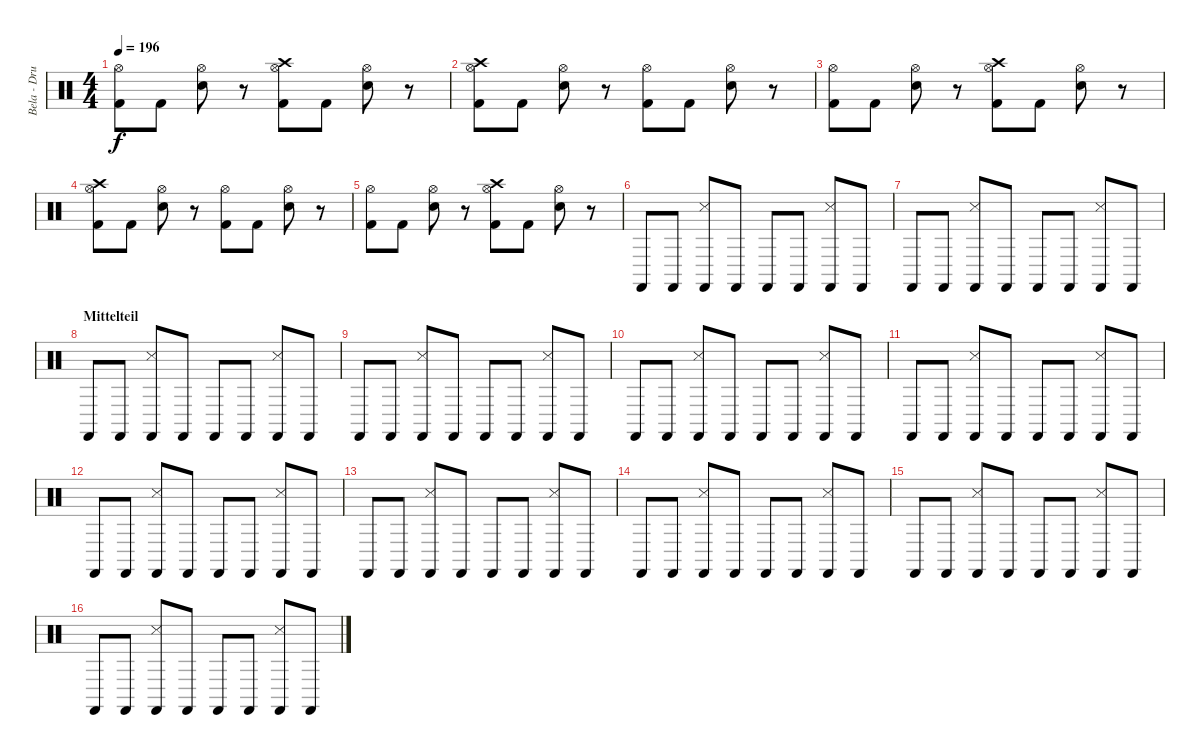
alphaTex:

\track ("Bela - Drums" "Bela - Dru") {instrument percussion}
\staff {score}
\articulation defaults
\ts (4 4)
\tempo 196
\clef neutral
\ks c
("Kick (hit) 2" "Hi-Hat (open)").8{dy f} "Kick (hit) 2".8 ("Electric Snare (hit)" "Hi-Hat (open)").8 r.8 ("Crash high (hit)" "Hi-Hat (open)" "Kick (hit) 2").8 "Kick (hit) 2".8 ("Electric Snare (hit)" "Hi-Hat (open)").8 r.8 |
("Crash high (hit)" "Kick (hit) 2" "Hi-Hat (open)").8 "Kick (hit) 2".8 ("Electric Snare (hit)" "Hi-Hat (open)").8 r.8 ("Hi-Hat (open)" "Kick (hit) 2").8 "Kick (hit) 2".8 ("Electric Snare (hit)" "Hi-Hat (open)").8 r.8 |
("Kick (hit) 2" "Hi-Hat (open)").8 "Kick (hit) 2".8 ("Electric Snare (hit)" "Hi-Hat (open)").8 r.8 ("Crash high (hit)" "Hi-Hat (open)" "Kick (hit) 2").8 "Kick (hit) 2".8 ("Electric Snare (hit)" "Hi-Hat (open)").8 r.8 |
("Crash high (hit)" "Kick (hit) 2" "Hi-Hat (open)").8 "Kick (hit) 2".8 ("Electric Snare (hit)" "Hi-Hat (open)").8 r.8 ("Hi-Hat (open)" "Kick (hit) 2").8 "Kick (hit) 2".8 ("Electric Snare (hit)" "Hi-Hat (open)").8 r.8 |
("Kick (hit) 2" "Hi-Hat (open)").8 "Kick (hit) 2".8 ("Electric Snare (hit)" "Hi-Hat (open)").8 r.8 ("Crash high (hit)" "Hi-Hat (open)" "Kick (hit) 2").8 "Kick (hit) 2".8 ("Electric Snare (hit)" "Hi-Hat (open)").8 r.8 |
"Castanets (hit)".8 "Castanets (hit)".8 ("Snare (side stick) 3" "Castanets (hit)").8 "Castanets (hit)".8 "Castanets (hit)".8 "Castanets (hit)".8 ("Snare (side stick) 3" "Castanets (hit)").8 "Castanets (hit)".8 |
"Castanets (hit)".8 "Castanets (hit)".8 ("Snare (side stick) 3" "Castanets (hit)").8 "Castanets (hit)".8 "Castanets (hit)".8 "Castanets (hit)".8 ("Snare (side stick) 3" "Castanets (hit)").8 "Castanets (hit)".8 |
\section ("" "Mittelteil")
"Castanets (hit)".8 "Castanets (hit)".8 ("Castanets (hit)" "Snare (side stick) 3").8 "Castanets (hit)".8 "Castanets (hit)".8 "Castanets (hit)".8 ("Snare (side stick) 3" "Castanets (hit)").8 "Castanets (hit)".8 |
"Castanets (hit)".8 "Castanets (hit)".8 ("Snare (side stick) 3" "Castanets (hit)").8 "Castanets (hit)".8 "Castanets (hit)".8 "Castanets (hit)".8 ("Castanets (hit)" "Snare (side stick) 3").8 "Castanets (hit)".8 |
"Castanets (hit)".8 "Castanets (hit)".8 ("Castanets (hit)" "Snare (side stick) 3").8 "Castanets (hit)".8 "Castanets (hit)".8 "Castanets (hit)".8 ("Snare (side stick) 3" "Castanets (hit)").8 "Castanets (hit)".8 |
"Castanets (hit)".8 "Castanets (hit)".8 ("Snare (side stick) 3" "Castanets (hit)").8 "Castanets (hit)".8 "Castanets (hit)".8 "Castanets (hit)".8 ("Castanets (hit)" "Snare (side stick) 3").8 "Castanets (hit)".8 |
"Castanets (hit)".8 "Castanets (hit)".8 ("Castanets (hit)" "Snare (side stick) 3").8 "Castanets (hit)".8 "Castanets (hit)".8 "Castanets (hit)".8 ("Snare (side stick) 3" "Castanets (hit)").8 "Castanets (hit)".8 |
"Castanets (hit)".8 "Castanets (hit)".8 ("Snare (side stick) 3" "Castanets (hit)").8 "Castanets (hit)".8 "Castanets (hit)".8 "Castanets (hit)".8 ("Castanets (hit)" "Snare (side stick) 3").8 "Castanets (hit)".8 |
"Castanets (hit)".8 "Castanets (hit)".8 ("Castanets (hit)" "Snare (side stick) 3").8 "Castanets (hit)".8 "Castanets (hit)".8 "Castanets (hit)".8 ("Snare (side stick) 3" "Castanets (hit)").8 "Castanets (hit)".8 |
"Castanets (hit)".8 "Castanets (hit)".8 ("Snare (side stick) 3" "Castanets (hit)").8 "Castanets (hit)".8 "Castanets (hit)".8 "Castanets (hit)".8 ("Castanets (hit)" "Snare (side stick) 3").8 "Castanets (hit)".8 |
"Castanets (hit)".8 "Castanets (hit)".8 ("Castanets (hit)" "Snare (side stick) 3").8 "Castanets (hit)".8 "Castanets (hit)".8 "Castanets (hit)".8 ("Snare (side stick) 3" "Castanets (hit)").8 "Castanets (hit)".8
